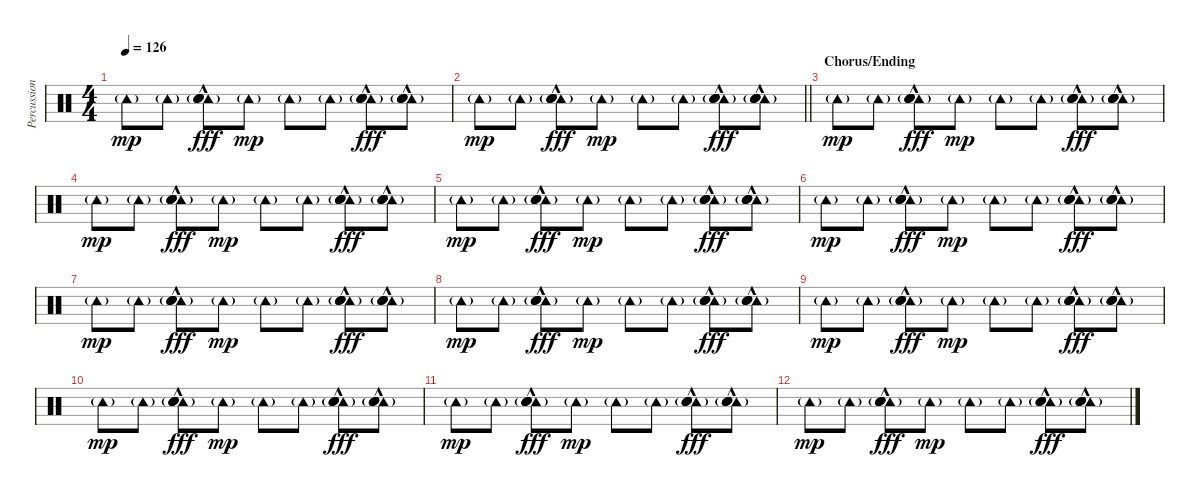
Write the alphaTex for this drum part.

\track ("Percussion" "Percussion") {instrument percussion}
\staff {score}
\articulation defaults
\ts (4 4)
\tempo 126
\clef neutral
\ks c "Tambourine (hit)"{g}.8{dy mp} "Tambourine (hit)"{g}.8
("Tambourine (hit)"{g} "Hand Clap (hit)"{hac} "Hand Clap (hit)"{hac} "Hand Clap (hit)"{hac}).8{dy fff} "Tambourine (hit)"{g}.8{dy mp} "Tambourine (hit)"{g}.8 "Tambourine (hit)"{g}.8 ("Tambourine (hit)"{g} "Hand Clap (hit)"{hac} "Hand Clap (hit)"{hac} "Hand Clap (hit)"{hac}).8{dy fff} ("Tambourine (hit)"{g} "Hand Clap (hit)"{hac} "Hand Clap (hit)"{hac} "Hand Clap (hit)"{hac}).8 |
\barLineRight lightlight "Tambourine (hit)"{g}.8{dy mp} "Tambourine (hit)"{g}.8
("Tambourine (hit)"{g} "Hand Clap (hit)"{hac} "Hand Clap (hit)"{hac} "Hand Clap (hit)"{hac}).8{dy fff} "Tambourine (hit)"{g}.8{dy mp} "Tambourine (hit)"{g}.8 "Tambourine (hit)"{g}.8 ("Tambourine (hit)"{g} "Hand Clap (hit)"{hac} "Hand Clap (hit)"{hac} "Hand Clap (hit)"{hac}).8{dy fff} ("Tambourine (hit)"{g} "Hand Clap (hit)"{hac} "Hand Clap (hit)"{hac} "Hand Clap (hit)"{hac}).8 |
\section ("" "Chorus/Ending")
"Tambourine (hit)"{g}.8{dy mp} "Tambourine (hit)"{g}.8 ("Tambourine (hit)"{g} "Hand Clap (hit)"{hac} "Hand Clap (hit)"{hac} "Hand Clap (hit)"{hac}).8{dy fff} "Tambourine (hit)"{g}.8{dy mp} "Tambourine (hit)"{g}.8 "Tambourine (hit)"{g}.8 ("Tambourine (hit)"{g} "Hand Clap (hit)"{hac} "Hand Clap (hit)"{hac} "Hand Clap (hit)"{hac}).8{dy fff} ("Tambourine (hit)"{g} "Hand Clap (hit)"{hac} "Hand Clap (hit)"{hac} "Hand Clap (hit)"{hac}).8 |
"Tambourine (hit)"{g}.8{dy mp} "Tambourine (hit)"{g}.8 ("Tambourine (hit)"{g} "Hand Clap (hit)"{hac} "Hand Clap (hit)"{hac} "Hand Clap (hit)"{hac}).8{dy fff} "Tambourine (hit)"{g}.8{dy mp} "Tambourine (hit)"{g}.8 "Tambourine (hit)"{g}.8 ("Tambourine (hit)"{g} "Hand Clap (hit)"{hac} "Hand Clap (hit)"{hac} "Hand Clap (hit)"{hac}).8{dy fff} ("Tambourine (hit)"{g} "Hand Clap (hit)"{hac} "Hand Clap (hit)"{hac} "Hand Clap (hit)"{hac}).8 |
"Tambourine (hit)"{g}.8{dy mp} "Tambourine (hit)"{g}.8 ("Tambourine (hit)"{g} "Hand Clap (hit)"{hac} "Hand Clap (hit)"{hac} "Hand Clap (hit)"{hac}).8{dy fff} "Tambourine (hit)"{g}.8{dy mp} "Tambourine (hit)"{g}.8 "Tambourine (hit)"{g}.8 ("Tambourine (hit)"{g} "Hand Clap (hit)"{hac} "Hand Clap (hit)"{hac} "Hand Clap (hit)"{hac}).8{dy fff} ("Tambourine (hit)"{g} "Hand Clap (hit)"{hac} "Hand Clap (hit)"{hac} "Hand Clap (hit)"{hac}).8 |
"Tambourine (hit)"{g}.8{dy mp} "Tambourine (hit)"{g}.8 ("Tambourine (hit)"{g} "Hand Clap (hit)"{hac} "Hand Clap (hit)"{hac} "Hand Clap (hit)"{hac}).8{dy fff} "Tambourine (hit)"{g}.8{dy mp} "Tambourine (hit)"{g}.8 "Tambourine (hit)"{g}.8 ("Tambourine (hit)"{g} "Hand Clap (hit)"{hac} "Hand Clap (hit)"{hac} "Hand Clap (hit)"{hac}).8{dy fff} ("Tambourine (hit)"{g} "Hand Clap (hit)"{hac} "Hand Clap (hit)"{hac} "Hand Clap (hit)"{hac}).8 |
"Tambourine (hit)"{g}.8{dy mp} "Tambourine (hit)"{g}.8 ("Tambourine (hit)"{g} "Hand Clap (hit)"{hac} "Hand Clap (hit)"{hac} "Hand Clap (hit)"{hac}).8{dy fff} "Tambourine (hit)"{g}.8{dy mp} "Tambourine (hit)"{g}.8 "Tambourine (hit)"{g}.8 ("Tambourine (hit)"{g} "Hand Clap (hit)"{hac} "Hand Clap (hit)"{hac} "Hand Clap (hit)"{hac}).8{dy fff} ("Tambourine (hit)"{g} "Hand Clap (hit)"{hac} "Hand Clap (hit)"{hac} "Hand Clap (hit)"{hac}).8 |
"Tambourine (hit)"{g}.8{dy mp} "Tambourine (hit)"{g}.8 ("Tambourine (hit)"{g} "Hand Clap (hit)"{hac} "Hand Clap (hit)"{hac} "Hand Clap (hit)"{hac}).8{dy fff} "Tambourine (hit)"{g}.8{dy mp} "Tambourine (hit)"{g}.8 "Tambourine (hit)"{g}.8 ("Tambourine (hit)"{g} "Hand Clap (hit)"{hac} "Hand Clap (hit)"{hac} "Hand Clap (hit)"{hac}).8{dy fff} ("Tambourine (hit)"{g} "Hand Clap (hit)"{hac} "Hand Clap (hit)"{hac} "Hand Clap (hit)"{hac}).8 |
"Tambourine (hit)"{g}.8{dy mp} "Tambourine (hit)"{g}.8 ("Tambourine (hit)"{g} "Hand Clap (hit)"{hac} "Hand Clap (hit)"{hac} "Hand Clap (hit)"{hac}).8{dy fff} "Tambourine (hit)"{g}.8{dy mp} "Tambourine (hit)"{g}.8 "Tambourine (hit)"{g}.8 ("Tambourine (hit)"{g} "Hand Clap (hit)"{hac} "Hand Clap (hit)"{hac} "Hand Clap (hit)"{hac}).8{dy fff} ("Tambourine (hit)"{g} "Hand Clap (hit)"{hac} "Hand Clap (hit)"{hac} "Hand Clap (hit)"{hac}).8 |
"Tambourine (hit)"{g}.8{dy mp} "Tambourine (hit)"{g}.8 ("Tambourine (hit)"{g} "Hand Clap (hit)"{hac} "Hand Clap (hit)"{hac} "Hand Clap (hit)"{hac}).8{dy fff} "Tambourine (hit)"{g}.8{dy mp} "Tambourine (hit)"{g}.8 "Tambourine (hit)"{g}.8 ("Tambourine (hit)"{g} "Hand Clap (hit)"{hac} "Hand Clap (hit)"{hac} "Hand Clap (hit)"{hac}).8{dy fff} ("Tambourine (hit)"{g} "Hand Clap (hit)"{hac} "Hand Clap (hit)"{hac} "Hand Clap (hit)"{hac}).8 |
"Tambourine (hit)"{g}.8{dy mp} "Tambourine (hit)"{g}.8 ("Tambourine (hit)"{g} "Hand Clap (hit)"{hac} "Hand Clap (hit)"{hac} "Hand Clap (hit)"{hac}).8{dy fff} "Tambourine (hit)"{g}.8{dy mp} "Tambourine (hit)"{g}.8 "Tambourine (hit)"{g}.8 ("Tambourine (hit)"{g} "Hand Clap (hit)"{hac} "Hand Clap (hit)"{hac} "Hand Clap (hit)"{hac}).8{dy fff} ("Tambourine (hit)"{g} "Hand Clap (hit)"{hac} "Hand Clap (hit)"{hac} "Hand Clap (hit)"{hac}).8 |
"Tambourine (hit)"{g}.8{dy mp} "Tambourine (hit)"{g}.8 ("Tambourine (hit)"{g} "Hand Clap (hit)"{hac} "Hand Clap (hit)"{hac} "Hand Clap (hit)"{hac}).8{dy fff} "Tambourine (hit)"{g}.8{dy mp} "Tambourine (hit)"{g}.8 "Tambourine (hit)"{g}.8 ("Tambourine (hit)"{g} "Hand Clap (hit)"{hac} "Hand Clap (hit)"{hac} "Hand Clap (hit)"{hac}).8{dy fff} ("Tambourine (hit)"{g} "Hand Clap (hit)"{hac} "Hand Clap (hit)"{hac} "Hand Clap (hit)"{hac}).8
